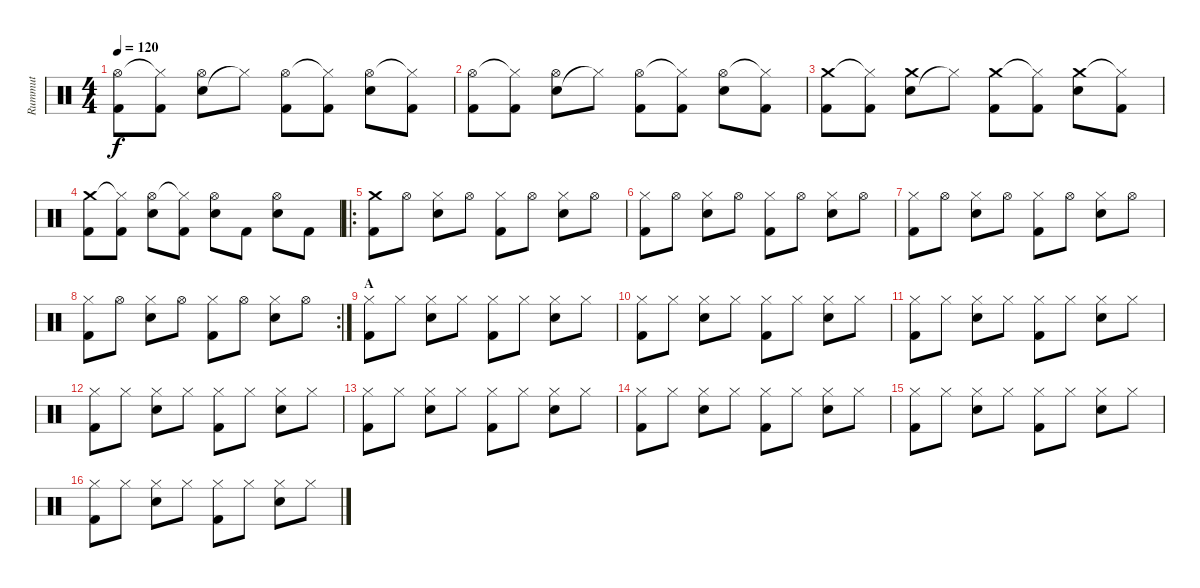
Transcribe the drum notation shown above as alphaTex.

\track ("Rummut" "Rummut") {instrument percussion}
\staff {score}
\articulation defaults
\ts (4 4)
\tempo 120
\clef neutral
\ks c
("Kick (hit) 2" "Hi-Hat (open)").8{dy f} ("Kick (hit) 2" "Hi-Hat (closed)"{t}).8 ("Electric Snare (hit)" "Hi-Hat (open)").8 "Hi-Hat (closed)"{t}.8 ("Kick (hit) 2" "Hi-Hat (open)").8 ("Kick (hit) 2" "Hi-Hat (closed)"{t}).8 ("Electric Snare (hit)" "Hi-Hat (open)").8 ("Kick (hit) 2" "Hi-Hat (closed)"{t}).8 |
("Kick (hit) 2" "Hi-Hat (open)").8 ("Kick (hit) 2" "Hi-Hat (closed)"{t}).8 ("Electric Snare (hit)" "Hi-Hat (open)").8 "Hi-Hat (closed)"{t}.8 ("Kick (hit) 2" "Hi-Hat (open)").8 ("Kick (hit) 2" "Hi-Hat (closed)"{t}).8 ("Electric Snare (hit)" "Hi-Hat (open)").8 ("Kick (hit) 2" "Hi-Hat (closed)"{t}).8 |
("Kick (hit) 2" "Crash medium (hit)").8 ("Kick (hit) 2" "Hi-Hat (closed)"{t}).8 ("Electric Snare (hit)" "Crash medium (hit)").8 "Hi-Hat (closed)"{t}.8 ("Kick (hit) 2" "Crash medium (hit)").8 ("Kick (hit) 2" "Hi-Hat (closed)"{t}).8 ("Electric Snare (hit)" "Crash medium (hit)").8 ("Kick (hit) 2" "Hi-Hat (closed)"{t}).8 |
("Kick (hit) 2" "Crash medium (hit)").8 ("Kick (hit) 2" "Hi-Hat (closed)"{t}).8 ("Electric Snare (hit)" "Hi-Hat (open)").8 ("Kick (hit) 2" "Hi-Hat (closed)"{t}).8 ("Electric Snare (hit)" "Hi-Hat (open)").8 "Kick (hit) 2".8 ("Electric Snare (hit)" "Hi-Hat (open)").8 "Kick (hit) 2".8 |
\ro
("Kick (hit) 2" "Crash medium (hit)").8 "Hi-Hat (open)".8 ("Electric Snare (hit)" "Hi-Hat (closed)").8 "Hi-Hat (open)".8 ("Kick (hit) 2" "Hi-Hat (closed)").8 "Hi-Hat (open)".8 ("Electric Snare (hit)" "Hi-Hat (closed)").8 "Hi-Hat (open)".8 |
("Kick (hit) 2" "Hi-Hat (closed)").8 "Hi-Hat (open)".8 ("Electric Snare (hit)" "Hi-Hat (closed)").8 "Hi-Hat (open)".8 ("Kick (hit) 2" "Hi-Hat (closed)").8 "Hi-Hat (open)".8 ("Electric Snare (hit)" "Hi-Hat (closed)").8 "Hi-Hat (open)".8 |
("Kick (hit) 2" "Hi-Hat (closed)").8 "Hi-Hat (open)".8 ("Electric Snare (hit)" "Hi-Hat (closed)").8 "Hi-Hat (open)".8 ("Kick (hit) 2" "Hi-Hat (closed)").8 "Hi-Hat (open)".8 ("Electric Snare (hit)" "Hi-Hat (closed)").8 "Hi-Hat (open)".8 |
\rc 2
("Kick (hit) 2" "Hi-Hat (closed)").8 "Hi-Hat (open)".8 ("Electric Snare (hit)" "Hi-Hat (closed)").8 "Hi-Hat (open)".8 ("Kick (hit) 2" "Hi-Hat (closed)").8 "Hi-Hat (open)".8 ("Electric Snare (hit)" "Hi-Hat (closed)").8 "Hi-Hat (open)".8 |
\section ("" "A")
("Kick (hit) 2" "Hi-Hat (closed)").8 "Hi-Hat (closed)".8 ("Electric Snare (hit)" "Hi-Hat (closed)").8 "Hi-Hat (closed)".8 ("Kick (hit) 2" "Hi-Hat (closed)").8 "Hi-Hat (closed)".8 ("Electric Snare (hit)" "Hi-Hat (closed)").8 "Hi-Hat (closed)".8 |
("Kick (hit) 2" "Hi-Hat (closed)").8 "Hi-Hat (closed)".8 ("Electric Snare (hit)" "Hi-Hat (closed)").8 "Hi-Hat (closed)".8 ("Kick (hit) 2" "Hi-Hat (closed)").8 "Hi-Hat (closed)".8 ("Electric Snare (hit)" "Hi-Hat (closed)").8 "Hi-Hat (closed)".8 |
("Kick (hit) 2" "Hi-Hat (closed)").8 "Hi-Hat (closed)".8 ("Electric Snare (hit)" "Hi-Hat (closed)").8 "Hi-Hat (closed)".8 ("Kick (hit) 2" "Hi-Hat (closed)").8 "Hi-Hat (closed)".8 ("Electric Snare (hit)" "Hi-Hat (closed)").8 "Hi-Hat (closed)".8 |
("Kick (hit) 2" "Hi-Hat (closed)").8 "Hi-Hat (closed)".8 ("Electric Snare (hit)" "Hi-Hat (closed)").8 "Hi-Hat (closed)".8 ("Kick (hit) 2" "Hi-Hat (closed)").8 "Hi-Hat (closed)".8 ("Electric Snare (hit)" "Hi-Hat (closed)").8 "Hi-Hat (closed)".8 |
("Kick (hit) 2" "Hi-Hat (closed)").8 "Hi-Hat (closed)".8 ("Electric Snare (hit)" "Hi-Hat (closed)").8 "Hi-Hat (closed)".8 ("Kick (hit) 2" "Hi-Hat (closed)").8 "Hi-Hat (closed)".8 ("Electric Snare (hit)" "Hi-Hat (closed)").8 "Hi-Hat (closed)".8 |
("Kick (hit) 2" "Hi-Hat (closed)").8 "Hi-Hat (closed)".8 ("Electric Snare (hit)" "Hi-Hat (closed)").8 "Hi-Hat (closed)".8 ("Kick (hit) 2" "Hi-Hat (closed)").8 "Hi-Hat (closed)".8 ("Electric Snare (hit)" "Hi-Hat (closed)").8 "Hi-Hat (closed)".8 |
("Kick (hit) 2" "Hi-Hat (closed)").8 "Hi-Hat (closed)".8 ("Electric Snare (hit)" "Hi-Hat (closed)").8 "Hi-Hat (closed)".8 ("Kick (hit) 2" "Hi-Hat (closed)").8 "Hi-Hat (closed)".8 ("Electric Snare (hit)" "Hi-Hat (closed)").8 "Hi-Hat (closed)".8 |
("Kick (hit) 2" "Hi-Hat (closed)").8 "Hi-Hat (closed)".8 ("Electric Snare (hit)" "Hi-Hat (closed)").8 "Hi-Hat (closed)".8 ("Kick (hit) 2" "Hi-Hat (closed)").8 "Hi-Hat (closed)".8 ("Electric Snare (hit)" "Hi-Hat (closed)").8 "Hi-Hat (closed)".8
